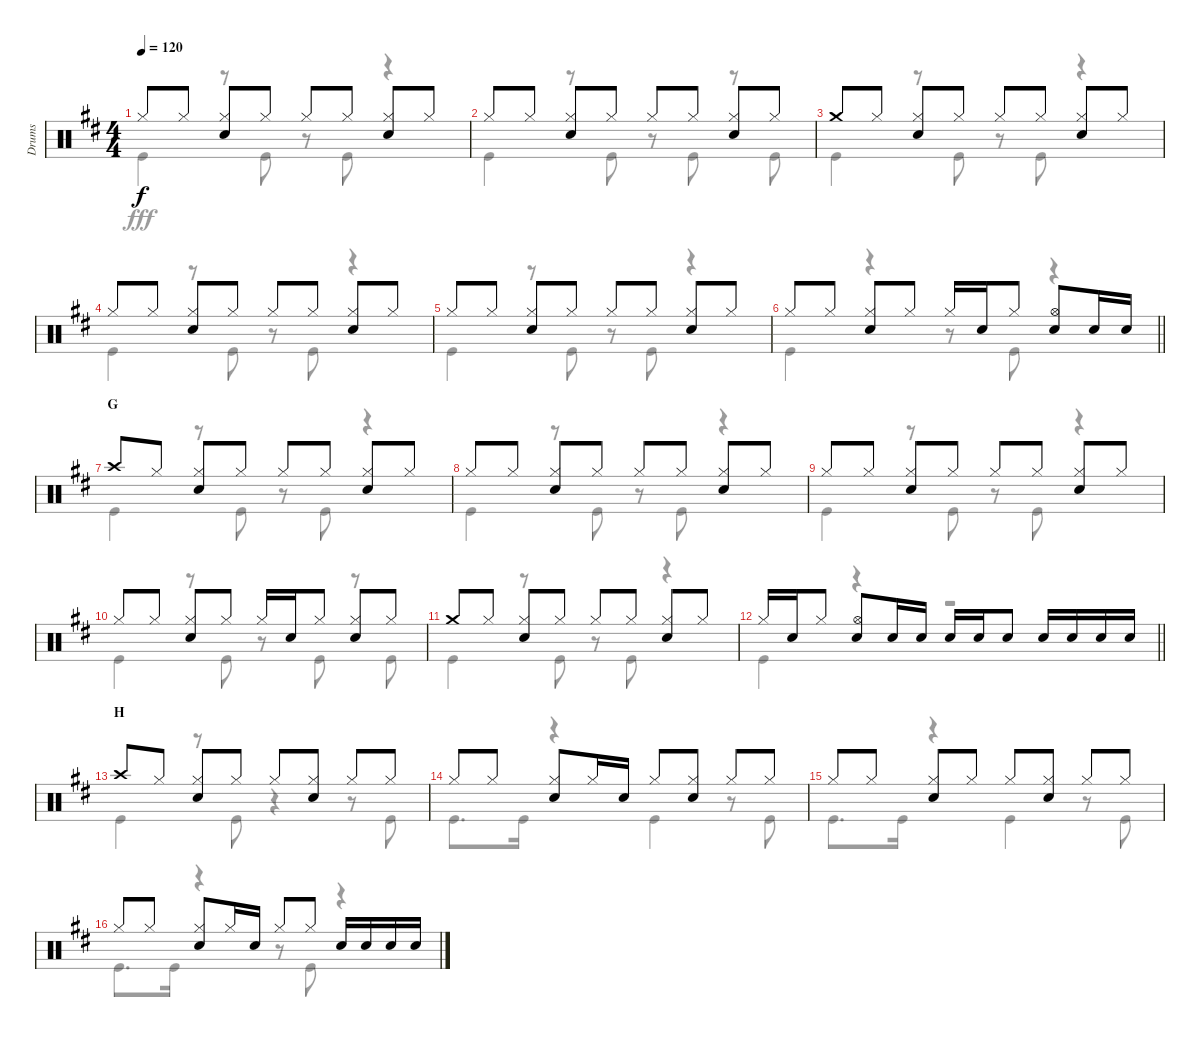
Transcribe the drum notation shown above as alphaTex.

\track ("Drums" "Drums") {instrument percussion}
\staff {score}
\articulation defaults
\voice
\ts (4 4)
\tempo 120
\clef neutral
\ks d "Hi-Hat (closed)".8{dy f} "Hi-Hat (closed)".8
("Hi-Hat (closed)" "Snare (hit) 2").8 "Hi-Hat (closed)".8 "Hi-Hat (closed)".8 "Hi-Hat (closed)".8 ("Hi-Hat (closed)" "Snare (hit) 2").8 "Hi-Hat (closed)".8 |
"Hi-Hat (closed)".8 "Hi-Hat (closed)".8 ("Hi-Hat (closed)" "Snare (hit) 2").8 "Hi-Hat (closed)".8 "Hi-Hat (closed)".8 "Hi-Hat (closed)".8 ("Hi-Hat (closed)" "Snare (hit) 2").8 "Hi-Hat (closed)".8 |
"Crash medium (hit)".8 "Hi-Hat (closed)".8 ("Hi-Hat (closed)" "Snare (hit) 2").8 "Hi-Hat (closed)".8 "Hi-Hat (closed)".8 "Hi-Hat (closed)".8 ("Hi-Hat (closed)" "Snare (hit) 2").8 "Hi-Hat (closed)".8 |
"Hi-Hat (closed)".8 "Hi-Hat (closed)".8 ("Hi-Hat (closed)" "Snare (hit) 2").8 "Hi-Hat (closed)".8 "Hi-Hat (closed)".8 "Hi-Hat (closed)".8 ("Hi-Hat (closed)" "Snare (hit) 2").8 "Hi-Hat (closed)".8 |
"Hi-Hat (closed)".8 "Hi-Hat (closed)".8 ("Hi-Hat (closed)" "Snare (hit) 2").8 "Hi-Hat (closed)".8 "Hi-Hat (closed)".8 "Hi-Hat (closed)".8 ("Hi-Hat (closed)" "Snare (hit) 2").8 "Hi-Hat (closed)".8 |
\barLineRight lightlight "Hi-Hat (closed)".8 "Hi-Hat (closed)".8
("Hi-Hat (closed)" "Snare (hit) 2").8 "Hi-Hat (closed)".8 "Hi-Hat (closed)".16 "Snare (hit) 2".16 "Hi-Hat (closed)".8 ("Hi-Hat (open)" "Snare (hit) 2").8 "Snare (hit) 2".16 "Snare (hit) 2".16 |
\section ("" "G")
"Crash high (hit)".8 "Hi-Hat (closed)".8 ("Hi-Hat (closed)" "Snare (hit) 2").8 "Hi-Hat (closed)".8 "Hi-Hat (closed)".8 "Hi-Hat (closed)".8 ("Hi-Hat (closed)" "Snare (hit) 2").8 "Hi-Hat (closed)".8 |
"Hi-Hat (closed)".8 "Hi-Hat (closed)".8 ("Hi-Hat (closed)" "Snare (hit) 2").8 "Hi-Hat (closed)".8 "Hi-Hat (closed)".8 "Hi-Hat (closed)".8 ("Hi-Hat (closed)" "Snare (hit) 2").8 "Hi-Hat (closed)".8 |
"Hi-Hat (closed)".8 "Hi-Hat (closed)".8 ("Hi-Hat (closed)" "Snare (hit) 2").8 "Hi-Hat (closed)".8 "Hi-Hat (closed)".8 "Hi-Hat (closed)".8 ("Hi-Hat (closed)" "Snare (hit) 2").8 "Hi-Hat (closed)".8 |
"Hi-Hat (closed)".8 "Hi-Hat (closed)".8 ("Hi-Hat (closed)" "Snare (hit) 2").8 "Hi-Hat (closed)".8 "Hi-Hat (closed)".16 "Snare (hit) 2".16 "Hi-Hat (closed)".8 ("Hi-Hat (closed)" "Snare (hit) 2").8 "Hi-Hat (closed)".8 |
"Crash medium (hit)".8 "Hi-Hat (closed)".8 ("Hi-Hat (closed)" "Snare (hit) 2").8 "Hi-Hat (closed)".8 "Hi-Hat (closed)".8 "Hi-Hat (closed)".8 ("Hi-Hat (closed)" "Snare (hit) 2").8 "Hi-Hat (closed)".8 |
\barLineRight lightlight "Hi-Hat (closed)".16 "Snare (hit) 2".16 "Hi-Hat (closed)".8
("Hi-Hat (open)" "Snare (hit) 2").8 "Snare (hit) 2".16 "Snare (hit) 2".16 "Snare (hit) 2".16 "Snare (hit) 2".16 "Snare (hit) 2".8 "Snare (hit) 2".16 "Snare (hit) 2".16 "Snare (hit) 2".16 "Snare (hit) 2".16 |
\section ("" "H")
"Crash high (hit)".8 "Hi-Hat (closed)".8 ("Hi-Hat (closed)" "Snare (hit) 2").8 "Hi-Hat (closed)".8 "Hi-Hat (closed)".8 ("Hi-Hat (closed)" "Snare (hit) 2").8 "Hi-Hat (closed)".8 "Hi-Hat (closed)".8 |
"Hi-Hat (closed)".8 "Hi-Hat (closed)".8 ("Hi-Hat (closed)" "Snare (hit) 2").8 "Hi-Hat (closed)".16 "Snare (hit) 2".16 "Hi-Hat (closed)".8 ("Hi-Hat (closed)" "Snare (hit) 2").8 "Hi-Hat (closed)".8 "Hi-Hat (closed)".8 |
"Hi-Hat (closed)".8 "Hi-Hat (closed)".8 ("Hi-Hat (closed)" "Snare (hit) 2").8 "Hi-Hat (closed)".8 "Hi-Hat (closed)".8 ("Hi-Hat (closed)" "Snare (hit) 2").8 "Hi-Hat (closed)".8 "Hi-Hat (closed)".8 |
"Hi-Hat (closed)".8 "Hi-Hat (closed)".8 ("Hi-Hat (closed)" "Snare (hit) 2").8 "Hi-Hat (closed)".16 "Snare (hit) 2".16 "Hi-Hat (closed)".8 "Hi-Hat (closed)".8 "Snare (hit) 2".16 "Snare (hit) 2".16 "Snare (hit) 2".16 "Snare (hit) 2".16
\voice
\clef neutral
\ottava regular
\simile none
\ks d "Kick (hit)".4{dy fff}
r.8 "Kick (hit)".8 r.8 "Kick (hit)".8 r.4 |
"Kick (hit)".4 r.8 "Kick (hit)".8 r.8 "Kick (hit)".8 r.8 "Kick (hit)".8 |
"Kick (hit)".4 r.8 "Kick (hit)".8 r.8 "Kick (hit)".8 r.4 |
"Kick (hit)".4 r.8 "Kick (hit)".8 r.8 "Kick (hit)".8 r.4 |
"Kick (hit)".4 r.8 "Kick (hit)".8 r.8 "Kick (hit)".8 r.4 |
\barLineRight lightlight "Kick (hit)".4
r.4 r.8 "Kick (hit)".8 r.4 |
"Kick (hit)".4 r.8 "Kick (hit)".8 r.8 "Kick (hit)".8 r.4 |
"Kick (hit)".4 r.8 "Kick (hit)".8 r.8 "Kick (hit)".8 r.4 |
"Kick (hit)".4 r.8 "Kick (hit)".8 r.8 "Kick (hit)".8 r.4 |
"Kick (hit)".4 r.8 "Kick (hit)".8 r.8 "Kick (hit)".8 r.8 "Kick (hit)".8 |
"Kick (hit)".4 r.8 "Kick (hit)".8 r.8 "Kick (hit)".8 r.4 |
\barLineRight lightlight "Kick (hit)".4
r.4 r.2 |
"Kick (hit)".4 r.8 "Kick (hit)".8 r.4 r.8 "Kick (hit)".8 |
"Kick (hit)".8{d} "Kick (hit)".16 r.4 "Kick (hit)".4 r.8 "Kick (hit)".8 |
"Kick (hit)".8{d} "Kick (hit)".16 r.4 "Kick (hit)".4 r.8 "Kick (hit)".8 |
"Kick (hit)".8{d} "Kick (hit)".16 r.4 r.8 "Kick (hit)".8 r.4
